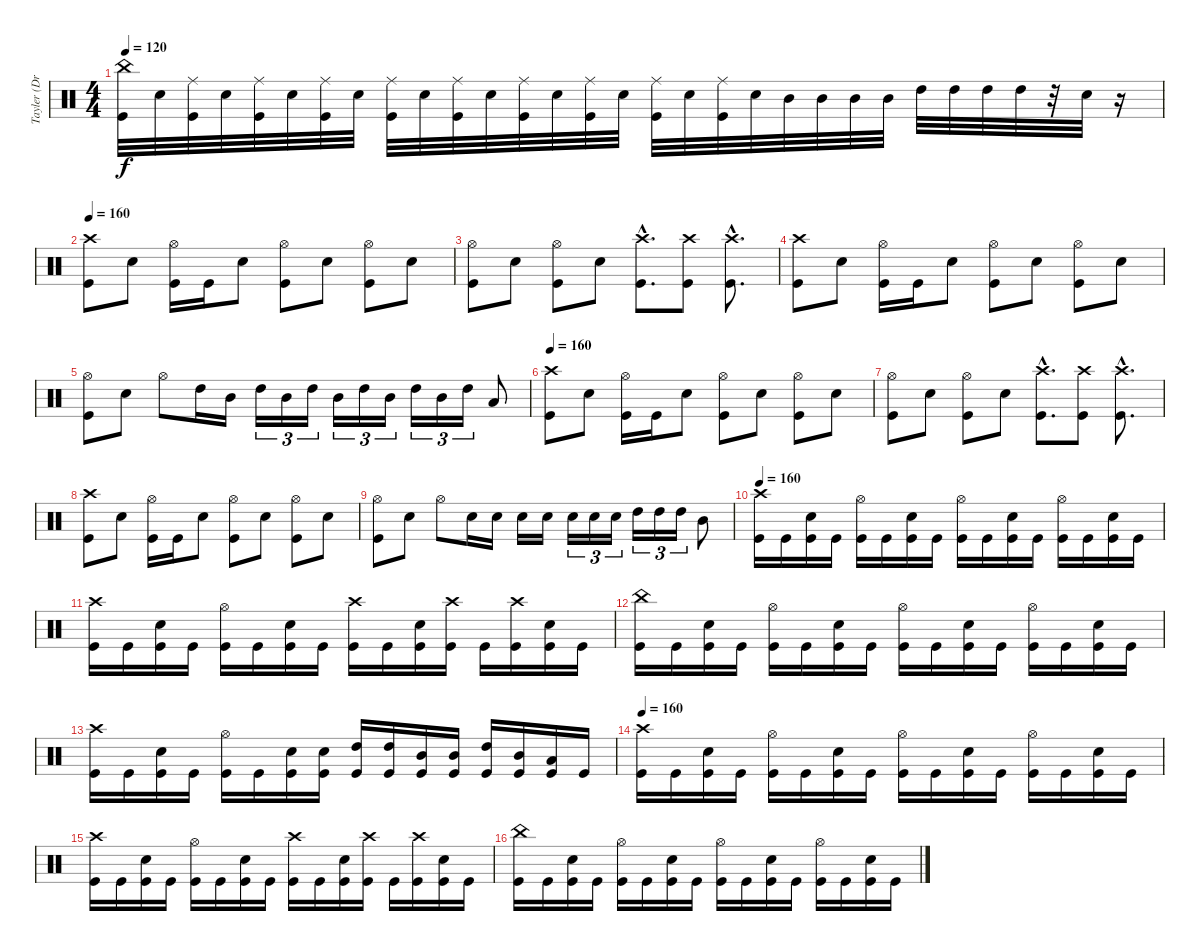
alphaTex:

\track ("Tayler (Drums)" "Tayler (Dr") {instrument percussion}
\staff {score}
\articulation defaults
\ts (4 4)
\tempo 120
\clef neutral
\ks c
("China (hit)" "Kick (hit)").32{dy f} "Electric Snare (hit)".32 ("Ride (middle)" "Kick (hit)").32 "Electric Snare (hit)".32 ("Ride (middle)" "Kick (hit)").32 "Electric Snare (hit)".32 ("Ride (middle)" "Kick (hit)").32 "Electric Snare (hit)".32 ("Ride (middle)" "Kick (hit)").32 "Electric Snare (hit)".32 ("Ride (middle)" "Kick (hit)").32 "Electric Snare (hit)".32 ("Ride (middle)" "Kick (hit)").32 "Electric Snare (hit)".32 ("Ride (middle)" "Kick (hit)").32 "Electric Snare (hit)".32 ("Ride (middle)" "Kick (hit)").32 "Electric Snare (hit)".32 ("Ride (middle)" "Kick (hit)").32 "Electric Snare (hit)".32 "Mid Tom (hit)".32 "Mid Tom (hit)".32 "Mid Tom (hit)".32 "Mid Tom (hit)".32 "High Tom (hit)".32 "High Tom (hit)".32 "High Tom (hit)".32 "High Tom (hit)".32 r.32 "Electric Snare (hit)".32 r.16 |
\tempo 160
("Crash high (hit)" "Kick (hit)").8 "Electric Snare (hit)".8 ("Hi-Hat (open)" "Kick (hit)").16 "Kick (hit)".16 "Electric Snare (hit)".8 ("Hi-Hat (open)" "Kick (hit)").8 "Electric Snare (hit)".8 ("Hi-Hat (open)" "Kick (hit)").8 "Electric Snare (hit)".8 |
("Hi-Hat (open)" "Kick (hit)").8 "Electric Snare (hit)".8 ("Hi-Hat (open)" "Kick (hit)").8 "Electric Snare (hit)".8 ("Crash high (hit)"{hac} "Kick (hit)"{hac}).8{d} ("Crash high (hit)" "Kick (hit)").8 ("Crash high (hit)"{hac} "Kick (hit)"{hac}).8{d} |
("Crash high (hit)" "Kick (hit)").8 "Electric Snare (hit)".8 ("Hi-Hat (open)" "Kick (hit)").16 "Kick (hit)".16 "Electric Snare (hit)".8 ("Hi-Hat (open)" "Kick (hit)").8 "Electric Snare (hit)".8 ("Hi-Hat (open)" "Kick (hit)").8 "Electric Snare (hit)".8 |
("Hi-Hat (open)" "Kick (hit)").8 "Electric Snare (hit)".8 "Hi-Hat (open)".8 "High Tom (hit)".16 "Mid Tom (hit)".16 "High Tom (hit)".16{tu (3 2)} "Mid Tom (hit)".16{tu (3 2)} "High Tom (hit)".16{tu (3 2)} "Mid Tom (hit)".16{tu (3 2)} "High Tom (hit)".16{tu (3 2)} "Mid Tom (hit)".16{tu (3 2)} "High Tom (hit)".16{tu (3 2)} "Mid Tom (hit)".16{tu (3 2)} "High Tom (hit)".16{tu (3 2)} "Low Tom (hit)".8 |
\tempo 160
("Crash high (hit)" "Kick (hit)").8 "Electric Snare (hit)".8 ("Hi-Hat (open)" "Kick (hit)").16 "Kick (hit)".16 "Electric Snare (hit)".8 ("Hi-Hat (open)" "Kick (hit)").8 "Electric Snare (hit)".8 ("Hi-Hat (open)" "Kick (hit)").8 "Electric Snare (hit)".8 |
("Hi-Hat (open)" "Kick (hit)").8 "Electric Snare (hit)".8 ("Hi-Hat (open)" "Kick (hit)").8 "Electric Snare (hit)".8 ("Crash high (hit)"{hac} "Kick (hit)"{hac}).8{d} ("Crash high (hit)" "Kick (hit)").8 ("Crash high (hit)"{hac} "Kick (hit)"{hac}).8{d} |
("Crash high (hit)" "Kick (hit)").8 "Electric Snare (hit)".8 ("Hi-Hat (open)" "Kick (hit)").16 "Kick (hit)".16 "Electric Snare (hit)".8 ("Hi-Hat (open)" "Kick (hit)").8 "Electric Snare (hit)".8 ("Hi-Hat (open)" "Kick (hit)").8 "Electric Snare (hit)".8 |
("Hi-Hat (open)" "Kick (hit)").8 "Electric Snare (hit)".8 "Hi-Hat (open)".8 "Electric Snare (hit)".16 "Electric Snare (hit)".16 "Electric Snare (hit)".16 "Electric Snare (hit)".16 "Electric Snare (hit)".16{tu (3 2)} "Electric Snare (hit)".16{tu (3 2)} "Electric Snare (hit)".16{tu (3 2)} "High Tom (hit)".16{tu (3 2)} "High Tom (hit)".16{tu (3 2)} "High Tom (hit)".16{tu (3 2)} "Mid Tom (hit)".8 |
\tempo 160
("Crash high (hit)" "Kick (hit)").16 "Kick (hit)".16 ("Electric Snare (hit)" "Kick (hit)").16 "Kick (hit)".16 ("Hi-Hat (open)" "Kick (hit)").16 "Kick (hit)".16 ("Electric Snare (hit)" "Kick (hit)").16 "Kick (hit)".16 ("Hi-Hat (open)" "Kick (hit)").16 "Kick (hit)".16 ("Electric Snare (hit)" "Kick (hit)").16 "Kick (hit)".16 ("Hi-Hat (open)" "Kick (hit)").16 "Kick (hit)".16 ("Electric Snare (hit)" "Kick (hit)").16 "Kick (hit)".16 |
("Crash high (hit)" "Kick (hit)").16 "Kick (hit)".16 ("Electric Snare (hit)" "Kick (hit)").16 "Kick (hit)".16 ("Hi-Hat (open)" "Kick (hit)").16 "Kick (hit)".16 ("Electric Snare (hit)" "Kick (hit)").16 "Kick (hit)".16 ("Crash high (hit)" "Kick (hit)").16 "Kick (hit)".16 ("Electric Snare (hit)" "Kick (hit)").16 ("Crash high (hit)" "Kick (hit)").16 "Kick (hit)".16 ("Crash high (hit)" "Kick (hit)").16 ("Electric Snare (hit)" "Kick (hit)").16 "Kick (hit)".16 |
("China (hit)" "Kick (hit)").16 "Kick (hit)".16 ("Electric Snare (hit)" "Kick (hit)").16 "Kick (hit)".16 ("Hi-Hat (open)" "Kick (hit)").16 "Kick (hit)".16 ("Electric Snare (hit)" "Kick (hit)").16 "Kick (hit)".16 ("Hi-Hat (open)" "Kick (hit)").16 "Kick (hit)".16 ("Electric Snare (hit)" "Kick (hit)").16 "Kick (hit)".16 ("Hi-Hat (open)" "Kick (hit)").16 "Kick (hit)".16 ("Electric Snare (hit)" "Kick (hit)").16 "Kick (hit)".16 |
("Crash high (hit)" "Kick (hit)").16 "Kick (hit)".16 ("Electric Snare (hit)" "Kick (hit)").16 "Kick (hit)".16 ("Hi-Hat (open)" "Kick (hit)").16 "Kick (hit)".16 ("Electric Snare (hit)" "Kick (hit)").16 ("Electric Snare (hit)" "Kick (hit)").16 ("High Tom (hit)" "Kick (hit)").16 ("High Tom (hit)" "Kick (hit)").16 ("Mid Tom (hit)" "Kick (hit)").16 ("Mid Tom (hit)" "Kick (hit)").16 ("High Tom (hit)" "Kick (hit)").16 ("Mid Tom (hit)" "Kick (hit)").16 ("Low Tom (hit)" "Kick (hit)").16 "Kick (hit)".16 |
\tempo 160
("Crash high (hit)" "Kick (hit)").16 "Kick (hit)".16 ("Electric Snare (hit)" "Kick (hit)").16 "Kick (hit)".16 ("Hi-Hat (open)" "Kick (hit)").16 "Kick (hit)".16 ("Electric Snare (hit)" "Kick (hit)").16 "Kick (hit)".16 ("Hi-Hat (open)" "Kick (hit)").16 "Kick (hit)".16 ("Electric Snare (hit)" "Kick (hit)").16 "Kick (hit)".16 ("Hi-Hat (open)" "Kick (hit)").16 "Kick (hit)".16 ("Electric Snare (hit)" "Kick (hit)").16 "Kick (hit)".16 |
("Crash high (hit)" "Kick (hit)").16 "Kick (hit)".16 ("Electric Snare (hit)" "Kick (hit)").16 "Kick (hit)".16 ("Hi-Hat (open)" "Kick (hit)").16 "Kick (hit)".16 ("Electric Snare (hit)" "Kick (hit)").16 "Kick (hit)".16 ("Crash high (hit)" "Kick (hit)").16 "Kick (hit)".16 ("Electric Snare (hit)" "Kick (hit)").16 ("Crash high (hit)" "Kick (hit)").16 "Kick (hit)".16 ("Crash high (hit)" "Kick (hit)").16 ("Electric Snare (hit)" "Kick (hit)").16 "Kick (hit)".16 |
("China (hit)" "Kick (hit)").16 "Kick (hit)".16 ("Electric Snare (hit)" "Kick (hit)").16 "Kick (hit)".16 ("Hi-Hat (open)" "Kick (hit)").16 "Kick (hit)".16 ("Electric Snare (hit)" "Kick (hit)").16 "Kick (hit)".16 ("Hi-Hat (open)" "Kick (hit)").16 "Kick (hit)".16 ("Electric Snare (hit)" "Kick (hit)").16 "Kick (hit)".16 ("Hi-Hat (open)" "Kick (hit)").16 "Kick (hit)".16 ("Electric Snare (hit)" "Kick (hit)").16 "Kick (hit)".16
